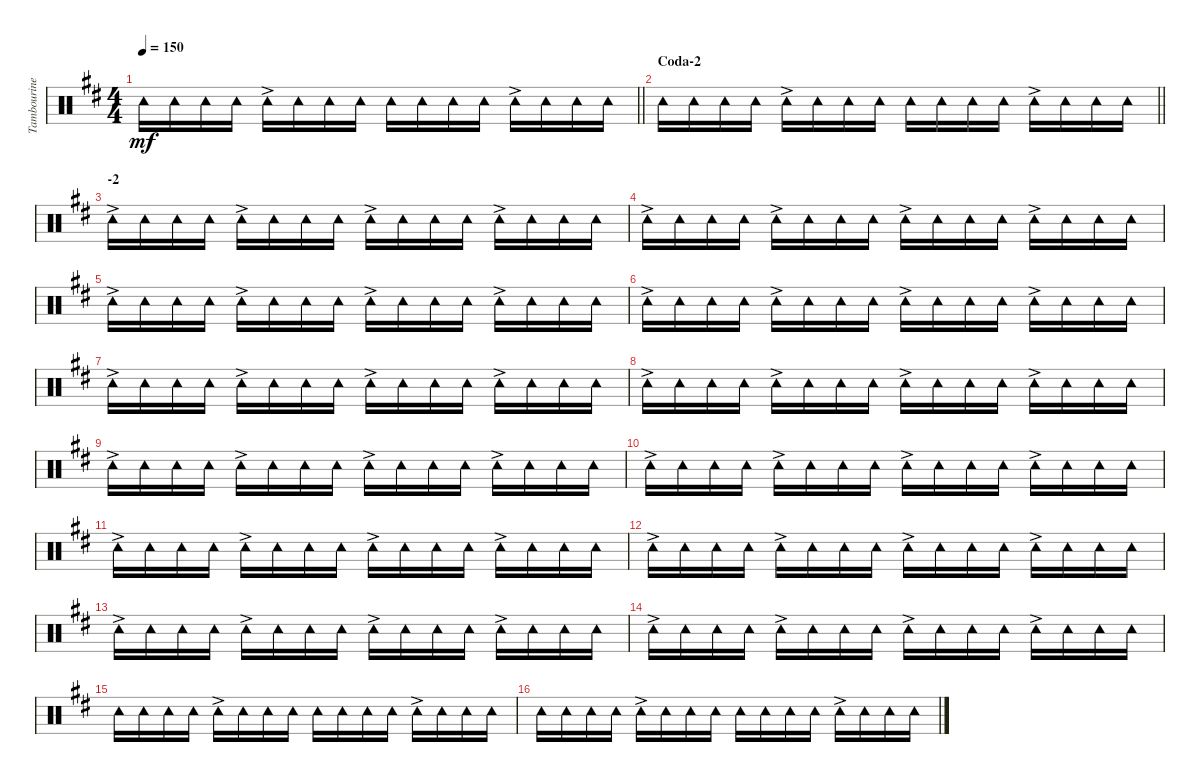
\track ("Tambourine" "Tambourine") {instrument percussion}
\staff {score}
\articulation defaults
\ts (4 4)
\tempo 150
\clef neutral
\barLineRight lightlight
\ks d "Tambourine (hit)".16{dy mf} "Tambourine (hit)".16 "Tambourine (hit)".16 "Tambourine (hit)".16 "Tambourine (hit)"{ac}.16 "Tambourine (hit)".16 "Tambourine (hit)".16 "Tambourine (hit)".16 "Tambourine (hit)".16 "Tambourine (hit)".16 "Tambourine (hit)".16 "Tambourine (hit)".16 "Tambourine (hit)"{ac}.16 "Tambourine (hit)".16 "Tambourine (hit)".16 "Tambourine (hit)".16
|
\section ("" "Coda-2")
\barLineRight lightlight "Tambourine (hit)".16 "Tambourine (hit)".16 "Tambourine (hit)".16 "Tambourine (hit)".16 "Tambourine (hit)"{ac}.16 "Tambourine (hit)".16 "Tambourine (hit)".16 "Tambourine (hit)".16 "Tambourine (hit)".16 "Tambourine (hit)".16 "Tambourine (hit)".16 "Tambourine (hit)".16 "Tambourine (hit)"{ac}.16 "Tambourine (hit)".16 "Tambourine (hit)".16 "Tambourine (hit)".16
|
\section ("" "-2")
"Tambourine (hit)"{ac}.16 "Tambourine (hit)".16 "Tambourine (hit)".16 "Tambourine (hit)".16 "Tambourine (hit)"{ac}.16 "Tambourine (hit)".16 "Tambourine (hit)".16 "Tambourine (hit)".16 "Tambourine (hit)"{ac}.16 "Tambourine (hit)".16 "Tambourine (hit)".16 "Tambourine (hit)".16 "Tambourine (hit)"{ac}.16 "Tambourine (hit)".16 "Tambourine (hit)".16 "Tambourine (hit)".16 |
"Tambourine (hit)"{ac}.16 "Tambourine (hit)".16 "Tambourine (hit)".16 "Tambourine (hit)".16 "Tambourine (hit)"{ac}.16 "Tambourine (hit)".16 "Tambourine (hit)".16 "Tambourine (hit)".16 "Tambourine (hit)"{ac}.16 "Tambourine (hit)".16 "Tambourine (hit)".16 "Tambourine (hit)".16 "Tambourine (hit)"{ac}.16 "Tambourine (hit)".16 "Tambourine (hit)".16 "Tambourine (hit)".16 |
"Tambourine (hit)"{ac}.16 "Tambourine (hit)".16 "Tambourine (hit)".16 "Tambourine (hit)".16 "Tambourine (hit)"{ac}.16 "Tambourine (hit)".16 "Tambourine (hit)".16 "Tambourine (hit)".16 "Tambourine (hit)"{ac}.16 "Tambourine (hit)".16 "Tambourine (hit)".16 "Tambourine (hit)".16 "Tambourine (hit)"{ac}.16 "Tambourine (hit)".16 "Tambourine (hit)".16 "Tambourine (hit)".16 |
"Tambourine (hit)"{ac}.16 "Tambourine (hit)".16 "Tambourine (hit)".16 "Tambourine (hit)".16 "Tambourine (hit)"{ac}.16 "Tambourine (hit)".16 "Tambourine (hit)".16 "Tambourine (hit)".16 "Tambourine (hit)"{ac}.16 "Tambourine (hit)".16 "Tambourine (hit)".16 "Tambourine (hit)".16 "Tambourine (hit)"{ac}.16 "Tambourine (hit)".16 "Tambourine (hit)".16 "Tambourine (hit)".16 |
"Tambourine (hit)"{ac}.16 "Tambourine (hit)".16 "Tambourine (hit)".16 "Tambourine (hit)".16 "Tambourine (hit)"{ac}.16 "Tambourine (hit)".16 "Tambourine (hit)".16 "Tambourine (hit)".16 "Tambourine (hit)"{ac}.16 "Tambourine (hit)".16 "Tambourine (hit)".16 "Tambourine (hit)".16 "Tambourine (hit)"{ac}.16 "Tambourine (hit)".16 "Tambourine (hit)".16 "Tambourine (hit)".16 |
"Tambourine (hit)"{ac}.16 "Tambourine (hit)".16 "Tambourine (hit)".16 "Tambourine (hit)".16 "Tambourine (hit)"{ac}.16 "Tambourine (hit)".16 "Tambourine (hit)".16 "Tambourine (hit)".16 "Tambourine (hit)"{ac}.16 "Tambourine (hit)".16 "Tambourine (hit)".16 "Tambourine (hit)".16 "Tambourine (hit)"{ac}.16 "Tambourine (hit)".16 "Tambourine (hit)".16 "Tambourine (hit)".16 |
"Tambourine (hit)"{ac}.16 "Tambourine (hit)".16 "Tambourine (hit)".16 "Tambourine (hit)".16 "Tambourine (hit)"{ac}.16 "Tambourine (hit)".16 "Tambourine (hit)".16 "Tambourine (hit)".16 "Tambourine (hit)"{ac}.16 "Tambourine (hit)".16 "Tambourine (hit)".16 "Tambourine (hit)".16 "Tambourine (hit)"{ac}.16 "Tambourine (hit)".16 "Tambourine (hit)".16 "Tambourine (hit)".16 |
"Tambourine (hit)"{ac}.16 "Tambourine (hit)".16 "Tambourine (hit)".16 "Tambourine (hit)".16 "Tambourine (hit)"{ac}.16 "Tambourine (hit)".16 "Tambourine (hit)".16 "Tambourine (hit)".16 "Tambourine (hit)"{ac}.16 "Tambourine (hit)".16 "Tambourine (hit)".16 "Tambourine (hit)".16 "Tambourine (hit)"{ac}.16 "Tambourine (hit)".16 "Tambourine (hit)".16 "Tambourine (hit)".16 |
"Tambourine (hit)"{ac}.16 "Tambourine (hit)".16 "Tambourine (hit)".16 "Tambourine (hit)".16 "Tambourine (hit)"{ac}.16 "Tambourine (hit)".16 "Tambourine (hit)".16 "Tambourine (hit)".16 "Tambourine (hit)"{ac}.16 "Tambourine (hit)".16 "Tambourine (hit)".16 "Tambourine (hit)".16 "Tambourine (hit)"{ac}.16 "Tambourine (hit)".16 "Tambourine (hit)".16 "Tambourine (hit)".16 |
"Tambourine (hit)"{ac}.16 "Tambourine (hit)".16 "Tambourine (hit)".16 "Tambourine (hit)".16 "Tambourine (hit)"{ac}.16 "Tambourine (hit)".16 "Tambourine (hit)".16 "Tambourine (hit)".16 "Tambourine (hit)"{ac}.16 "Tambourine (hit)".16 "Tambourine (hit)".16 "Tambourine (hit)".16 "Tambourine (hit)"{ac}.16 "Tambourine (hit)".16 "Tambourine (hit)".16 "Tambourine (hit)".16 |
"Tambourine (hit)"{ac}.16 "Tambourine (hit)".16 "Tambourine (hit)".16 "Tambourine (hit)".16 "Tambourine (hit)"{ac}.16 "Tambourine (hit)".16 "Tambourine (hit)".16 "Tambourine (hit)".16 "Tambourine (hit)"{ac}.16 "Tambourine (hit)".16 "Tambourine (hit)".16 "Tambourine (hit)".16 "Tambourine (hit)"{ac}.16 "Tambourine (hit)".16 "Tambourine (hit)".16 "Tambourine (hit)".16 |
"Tambourine (hit)"{ac}.16 "Tambourine (hit)".16 "Tambourine (hit)".16 "Tambourine (hit)".16 "Tambourine (hit)"{ac}.16 "Tambourine (hit)".16 "Tambourine (hit)".16 "Tambourine (hit)".16 "Tambourine (hit)"{ac}.16 "Tambourine (hit)".16 "Tambourine (hit)".16 "Tambourine (hit)".16 "Tambourine (hit)"{ac}.16 "Tambourine (hit)".16 "Tambourine (hit)".16 "Tambourine (hit)".16 |
"Tambourine (hit)".16 "Tambourine (hit)".16 "Tambourine (hit)".16 "Tambourine (hit)".16 "Tambourine (hit)"{ac}.16 "Tambourine (hit)".16 "Tambourine (hit)".16 "Tambourine (hit)".16 "Tambourine (hit)".16 "Tambourine (hit)".16 "Tambourine (hit)".16 "Tambourine (hit)".16 "Tambourine (hit)"{ac}.16 "Tambourine (hit)".16 "Tambourine (hit)".16 "Tambourine (hit)".16 |
"Tambourine (hit)".16 "Tambourine (hit)".16 "Tambourine (hit)".16 "Tambourine (hit)".16 "Tambourine (hit)"{ac}.16 "Tambourine (hit)".16 "Tambourine (hit)".16 "Tambourine (hit)".16 "Tambourine (hit)".16 "Tambourine (hit)".16 "Tambourine (hit)".16 "Tambourine (hit)".16 "Tambourine (hit)"{ac}.16 "Tambourine (hit)".16 "Tambourine (hit)".16 "Tambourine (hit)".16
